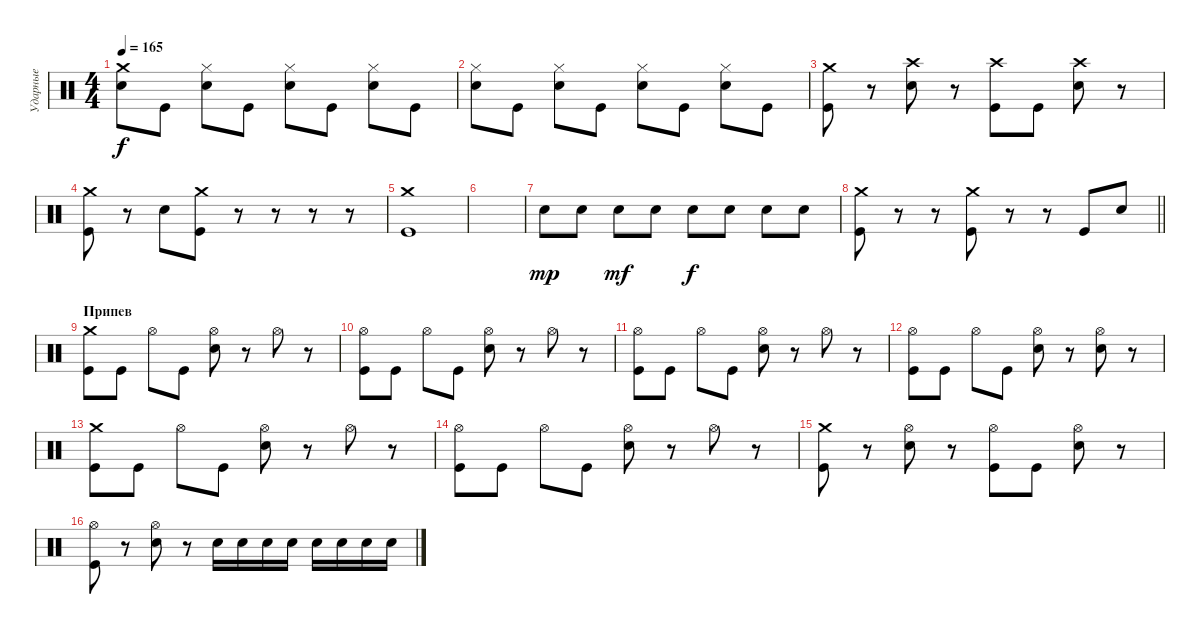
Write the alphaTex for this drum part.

\track ("Ударные" "Ударные") {instrument percussion}
\staff {score}
\articulation defaults
\ts (4 4)
\tempo 165
\clef neutral
\ks c
("Crash medium (hit)" "Electric Snare (hit)").8{dy f} "Kick (hit)".8 ("Hi-Hat (closed)" "Electric Snare (hit)").8 "Kick (hit)".8 ("Hi-Hat (closed)" "Electric Snare (hit)").8 "Kick (hit)".8 ("Hi-Hat (closed)" "Electric Snare (hit)").8 "Kick (hit)".8 |
("Hi-Hat (closed)" "Electric Snare (hit)").8 "Kick (hit)".8 ("Hi-Hat (closed)" "Electric Snare (hit)").8 "Kick (hit)".8 ("Hi-Hat (closed)" "Electric Snare (hit)").8 "Kick (hit)".8 ("Hi-Hat (closed)" "Electric Snare (hit)").8 "Kick (hit)".8 |
("Crash medium (hit)" "Kick (hit)").8 r.8 ("Crash high (hit)" "Electric Snare (hit)").8 r.8 ("Crash high (hit)" "Kick (hit)").8 "Kick (hit)".8 ("Crash high (hit)" "Electric Snare (hit)").8 r.8 |
("Crash medium (hit)" "Kick (hit)").8 r.8 "Electric Snare (hit)".8 ("Crash medium (hit)" "Kick (hit)").8 r.8 r.8 r.8 r.8 |
("Crash medium (hit)" "Kick (hit)").1 |
|
"Electric Snare (hit)".8{dy mp} "Electric Snare (hit)".8 "Electric Snare (hit)".8{dy mf} "Electric Snare (hit)".8 "Electric Snare (hit)".8{dy f} "Electric Snare (hit)".8 "Electric Snare (hit)".8 "Electric Snare (hit)".8 |
\barLineRight lightlight
("Crash medium (hit)" "Kick (hit)").8 r.8 r.8 ("Crash medium (hit)" "Kick (hit)").8 r.8 r.8 "Kick (hit)".8 "Electric Snare (hit)".8 |
\section ("" "Припев")
("Crash medium (hit)" "Kick (hit)").8 "Kick (hit)".8 "Hi-Hat (open)".8 "Kick (hit)".8 ("Hi-Hat (open)" "Electric Snare (hit)").8 r.8 "Hi-Hat (open)".8 r.8 |
("Hi-Hat (open)" "Kick (hit)").8 "Kick (hit)".8 "Hi-Hat (open)".8 "Kick (hit)".8 ("Hi-Hat (open)" "Electric Snare (hit)").8 r.8 "Hi-Hat (open)".8 r.8 |
("Hi-Hat (open)" "Kick (hit)").8 "Kick (hit)".8 "Hi-Hat (open)".8 "Kick (hit)".8 ("Hi-Hat (open)" "Electric Snare (hit)").8 r.8 "Hi-Hat (open)".8 r.8 |
("Hi-Hat (open)" "Kick (hit)").8 "Kick (hit)".8 "Hi-Hat (open)".8 "Kick (hit)".8 ("Hi-Hat (open)" "Electric Snare (hit)").8 r.8 ("Hi-Hat (open)" "Electric Snare (hit)").8 r.8 |
("Crash medium (hit)" "Kick (hit)").8 "Kick (hit)".8 "Hi-Hat (open)".8 "Kick (hit)".8 ("Hi-Hat (open)" "Electric Snare (hit)").8 r.8 "Hi-Hat (open)".8 r.8 |
("Hi-Hat (open)" "Kick (hit)").8 "Kick (hit)".8 "Hi-Hat (open)".8 "Kick (hit)".8 ("Hi-Hat (open)" "Electric Snare (hit)").8 r.8 "Hi-Hat (open)".8 r.8 |
("Crash medium (hit)" "Kick (hit)").8 r.8 ("Hi-Hat (open)" "Electric Snare (hit)").8 r.8 ("Hi-Hat (open)" "Kick (hit)").8 "Kick (hit)".8 ("Hi-Hat (open)" "Electric Snare (hit)").8 r.8 |
("Hi-Hat (open)" "Kick (hit)").8 r.8 ("Hi-Hat (open)" "Electric Snare (hit)").8 r.8 "Electric Snare (hit)".16 "Electric Snare (hit)".16 "Electric Snare (hit)".16 "Electric Snare (hit)".16 "Electric Snare (hit)".16 "Electric Snare (hit)".16 "Electric Snare (hit)".16 "Electric Snare (hit)".16
